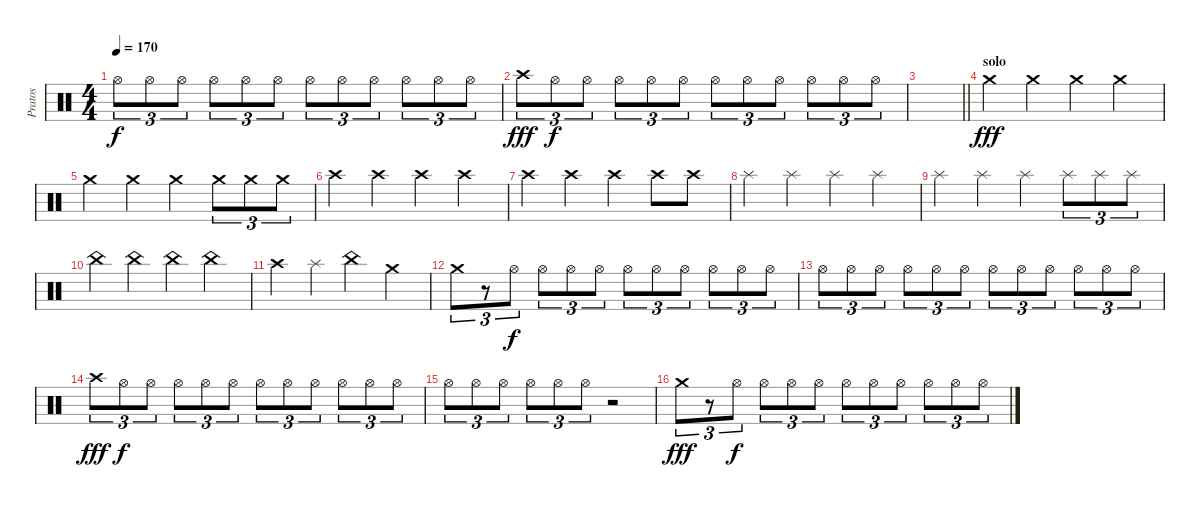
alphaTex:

\track ("Pratos" "Pratos") {instrument percussion}
\staff {score}
\articulation defaults
\ts (4 4)
\tempo 170
\clef neutral
\ks c "Hi-Hat (open)".8{tu (3 2) dy f} "Hi-Hat (open)".8{tu (3 2)} "Hi-Hat (open)".8{tu (3 2)} "Hi-Hat (open)".8{tu (3 2)} "Hi-Hat (open)".8{tu (3 2)} "Hi-Hat (open)".8{tu (3 2)} "Hi-Hat (open)".8{tu (3 2)} "Hi-Hat (open)".8{tu (3 2)} "Hi-Hat (open)".8{tu (3 2)} "Hi-Hat (open)".8{tu (3 2)} "Hi-Hat (open)".8{tu (3 2)} "Hi-Hat (open)".8{tu (3 2)}
|
"Crash high (hit)".8{tu (3 2) dy fff} "Hi-Hat (open)".8{tu (3 2) dy f} "Hi-Hat (open)".8{tu (3 2)} "Hi-Hat (open)".8{tu (3 2)} "Hi-Hat (open)".8{tu (3 2)} "Hi-Hat (open)".8{tu (3 2)} "Hi-Hat (open)".8{tu (3 2)} "Hi-Hat (open)".8{tu (3 2)} "Hi-Hat (open)".8{tu (3 2)} "Hi-Hat (open)".8{tu (3 2)} "Hi-Hat (open)".8{tu (3 2)} "Hi-Hat (open)".8{tu (3 2)} |
\barLineRight lightlight
|
\section ("" "solo")
"Crash medium (hit)".4{dy fff} "Crash medium (hit)".4 "Crash medium (hit)".4 "Crash medium (hit)".4 |
"Crash medium (hit)".4 "Crash medium (hit)".4 "Crash medium (hit)".4 "Crash medium (hit)".8{tu (3 2)} "Crash medium (hit)".8{tu (3 2)} "Crash medium (hit)".8{tu (3 2)} |
"Crash high (hit)".4 "Crash high (hit)".4 "Crash high (hit)".4 "Crash high (hit)".4 |
"Crash high (hit)".4 "Crash high (hit)".4 "Crash high (hit)".4 "Crash high (hit)".8 "Crash high (hit)".8 |
"Splash (hit)".4 "Splash (hit)".4 "Splash (hit)".4 "Splash (hit)".4 |
"Splash (hit)".4 "Splash (hit)".4 "Splash (hit)".4 "Splash (hit)".8{tu (3 2)} "Splash (hit)".8{tu (3 2)} "Splash (hit)".8{tu (3 2)} |
"China (hit)".4 "China (hit)".4 "China (hit)".4 "China (hit)".4 |
"Crash high (hit)".4 "Splash (hit)".4 "China (hit)".4 "Crash medium (hit)".4 |
"Crash medium (hit)".8{tu (3 2)} r.8{tu (3 2)} "Hi-Hat (open)".8{tu (3 2) dy f} "Hi-Hat (open)".8{tu (3 2)} "Hi-Hat (open)".8{tu (3 2)} "Hi-Hat (open)".8{tu (3 2)} "Hi-Hat (open)".8{tu (3 2)} "Hi-Hat (open)".8{tu (3 2)} "Hi-Hat (open)".8{tu (3 2)} "Hi-Hat (open)".8{tu (3 2)} "Hi-Hat (open)".8{tu (3 2)} "Hi-Hat (open)".8{tu (3 2)} |
"Hi-Hat (open)".8{tu (3 2)} "Hi-Hat (open)".8{tu (3 2)} "Hi-Hat (open)".8{tu (3 2)} "Hi-Hat (open)".8{tu (3 2)} "Hi-Hat (open)".8{tu (3 2)} "Hi-Hat (open)".8{tu (3 2)} "Hi-Hat (open)".8{tu (3 2)} "Hi-Hat (open)".8{tu (3 2)} "Hi-Hat (open)".8{tu (3 2)} "Hi-Hat (open)".8{tu (3 2)} "Hi-Hat (open)".8{tu (3 2)} "Hi-Hat (open)".8{tu (3 2)} |
"Crash high (hit)".8{tu (3 2) dy fff} "Hi-Hat (open)".8{tu (3 2) dy f} "Hi-Hat (open)".8{tu (3 2)} "Hi-Hat (open)".8{tu (3 2)} "Hi-Hat (open)".8{tu (3 2)} "Hi-Hat (open)".8{tu (3 2)} "Hi-Hat (open)".8{tu (3 2)} "Hi-Hat (open)".8{tu (3 2)} "Hi-Hat (open)".8{tu (3 2)} "Hi-Hat (open)".8{tu (3 2)} "Hi-Hat (open)".8{tu (3 2)} "Hi-Hat (open)".8{tu (3 2)} |
"Hi-Hat (open)".8{tu (3 2)} "Hi-Hat (open)".8{tu (3 2)} "Hi-Hat (open)".8{tu (3 2)} "Hi-Hat (open)".8{tu (3 2)} "Hi-Hat (open)".8{tu (3 2)} "Hi-Hat (open)".8{tu (3 2)} r.2 |
"Crash medium (hit)".8{tu (3 2) dy fff} r.8{tu (3 2)} "Hi-Hat (open)".8{tu (3 2) dy f} "Hi-Hat (open)".8{tu (3 2)} "Hi-Hat (open)".8{tu (3 2)} "Hi-Hat (open)".8{tu (3 2)} "Hi-Hat (open)".8{tu (3 2)} "Hi-Hat (open)".8{tu (3 2)} "Hi-Hat (open)".8{tu (3 2)} "Hi-Hat (open)".8{tu (3 2)} "Hi-Hat (open)".8{tu (3 2)} "Hi-Hat (open)".8{tu (3 2)}
